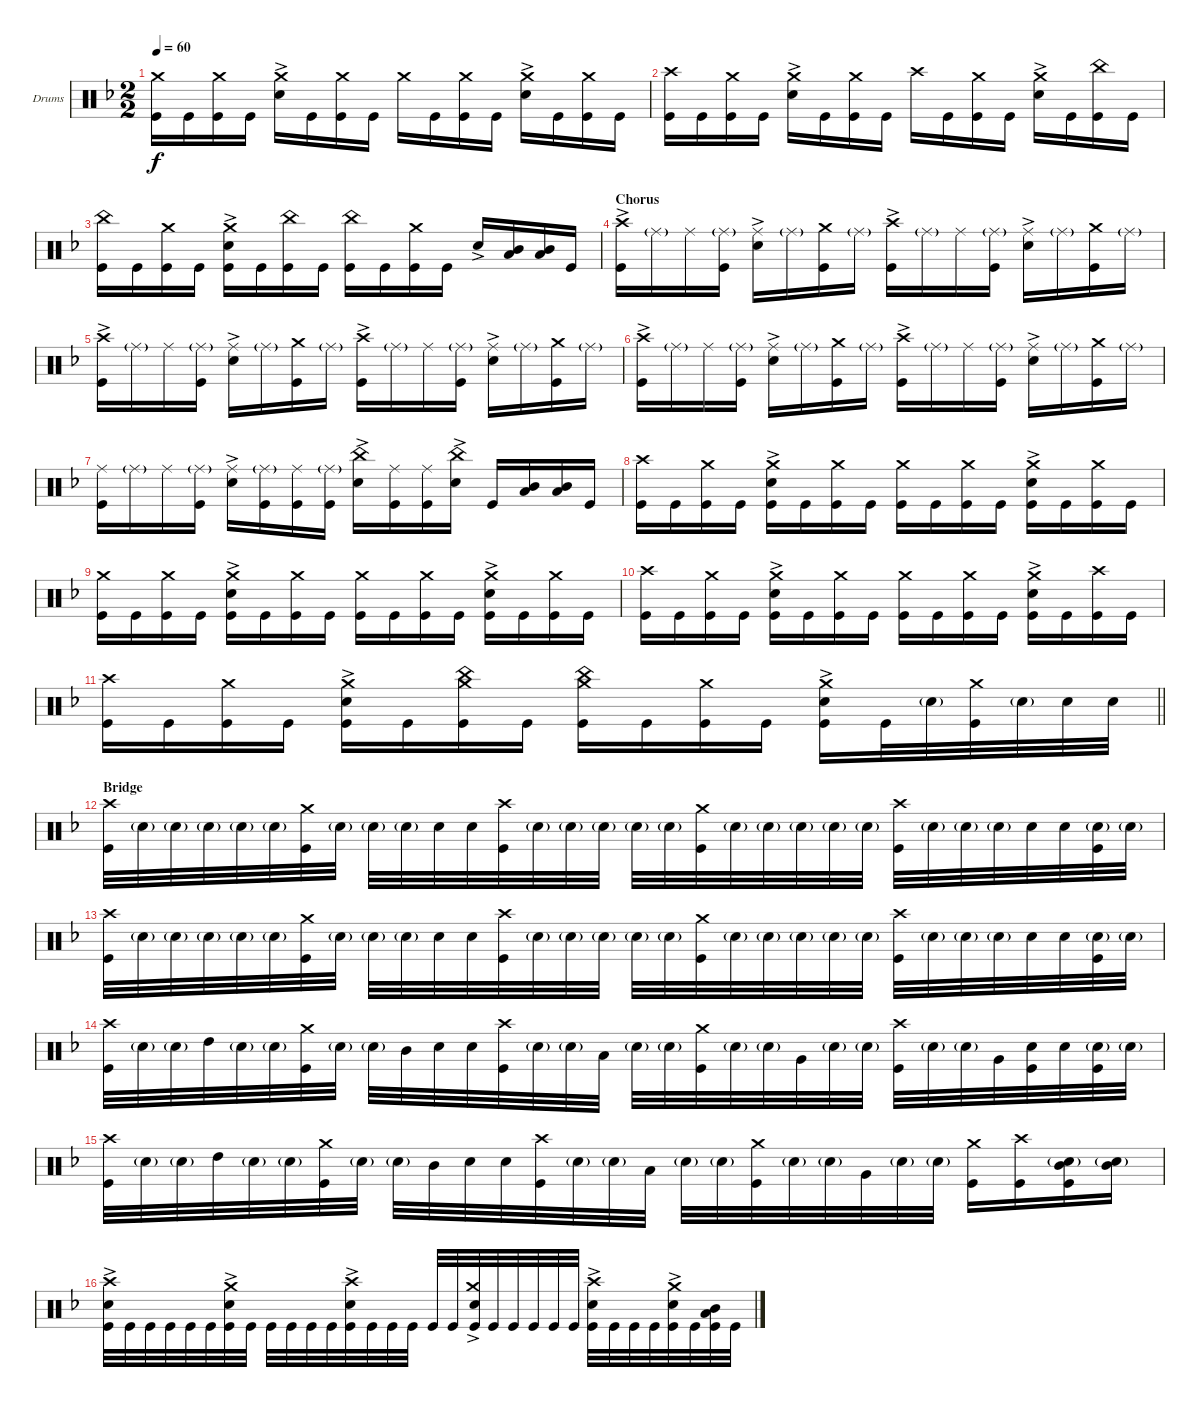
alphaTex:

\bracketExtendMode groupsimilarinstruments
\firstSystemTrackNameOrientation horizontal
\otherSystemsTrackNameOrientation horizontal
\track ("Drumkit" "Drums") {instrument percussion}
\staff {score}
\articulation defaults
\ts (2 2)
\tempo 60
\clef neutral
\ks dminor
("Kick (hit)" "Crash medium (hit)").16{dy f} "Kick (hit)".16 ("Kick (hit)" "Crash medium (hit)").16 "Kick (hit)".16 ("Snare (hit) 2"{ac} "Crash medium (hit)").16 "Kick (hit)".16 ("Kick (hit)" "Crash medium (hit)").16 "Kick (hit)".16 "Crash medium (hit)".16 "Kick (hit)".16 ("Kick (hit)" "Crash medium (hit)").16 "Kick (hit)".16 ("Snare (hit) 2"{ac} "Crash medium (hit)").16 "Kick (hit)".16 ("Kick (hit)" "Crash medium (hit)").16 "Kick (hit)".16 |
("Kick (hit)" "Crash high (hit)").16 "Kick (hit)".16 ("Kick (hit)" "Crash medium (hit)").16 "Kick (hit)".16 ("Snare (hit) 2"{ac} "Crash medium (hit)").16 "Kick (hit)".16 ("Kick (hit)" "Crash medium (hit)").16 "Kick (hit)".16 "Crash high (hit)".16 "Kick (hit)".16 ("Kick (hit)" "Crash medium (hit)").16 "Kick (hit)".16 ("Snare (hit) 2"{ac} "Crash medium (hit)").16 "Kick (hit)".16 ("Kick (hit)" "China (hit)").16 "Kick (hit)".16 |
("China (hit)" "Kick (hit)").16 "Kick (hit)".16 ("Kick (hit)" "Crash medium (hit)").16 "Kick (hit)".16 ("Kick (hit)" "Crash medium (hit)" "Snare (hit) 2"{ac}).16 "Kick (hit)".16 ("Kick (hit)" "China (hit)").16 "Kick (hit)".16 ("Kick (hit)" "China (hit)").16 "Kick (hit)".16 ("Kick (hit)" "Crash medium (hit)").16 "Kick (hit)".16 "Snare (hit) 2"{ac}.16 ("Mid Tom (hit)" "Low Tom (hit)").16 ("Low Tom (hit)" "Mid Tom (hit)").16 "Kick (hit)".16 |
\section ("" "Chorus")
("Crash high (hit)"{ac} "Kick (hit)").16 "Ride (middle)"{g}.16 "Ride (middle)".16 ("Ride (middle)"{g} "Kick (hit)").16 ("Ride (middle)" "Snare (hit) 2"{ac}).16 "Ride (middle)"{g}.16 ("Crash medium (hit)" "Kick (hit)").16 "Ride (middle)"{g}.16 ("Crash high (hit)"{ac} "Kick (hit)").16 "Ride (middle)"{g}.16 "Ride (middle)".16 ("Ride (middle)"{g} "Kick (hit)").16 ("Ride (middle)" "Snare (hit) 2"{ac}).16 "Ride (middle)"{g}.16 ("Crash medium (hit)" "Kick (hit)").16 "Ride (middle)"{g}.16 |
("Crash high (hit)"{ac} "Kick (hit)").16 "Ride (middle)"{g}.16 "Ride (middle)".16 ("Ride (middle)"{g} "Kick (hit)").16 ("Ride (middle)" "Snare (hit) 2"{ac}).16 "Ride (middle)"{g}.16 ("Crash medium (hit)" "Kick (hit)").16 "Ride (middle)"{g}.16 ("Crash high (hit)"{ac} "Kick (hit)").16 "Ride (middle)"{g}.16 "Ride (middle)".16 ("Ride (middle)"{g} "Kick (hit)").16 ("Ride (middle)" "Snare (hit) 2"{ac}).16 "Ride (middle)"{g}.16 ("Crash medium (hit)" "Kick (hit)").16 "Ride (middle)"{g}.16 |
("Crash high (hit)"{ac} "Kick (hit)").16 "Ride (middle)"{g}.16 "Ride (middle)".16 ("Ride (middle)"{g} "Kick (hit)").16 ("Ride (middle)" "Snare (hit) 2"{ac}).16 "Ride (middle)"{g}.16 ("Crash medium (hit)" "Kick (hit)").16 "Ride (middle)"{g}.16 ("Crash high (hit)"{ac} "Kick (hit)").16 "Ride (middle)"{g}.16 "Ride (middle)".16 ("Ride (middle)"{g} "Kick (hit)").16 ("Ride (middle)" "Snare (hit) 2"{ac}).16 "Ride (middle)"{g}.16 ("Crash medium (hit)" "Kick (hit)").16 "Ride (middle)"{g}.16 |
("Kick (hit)" "Ride (middle)").16 "Ride (middle)"{g}.16 "Ride (middle)".16 ("Kick (hit)" "Ride (middle)"{g}).16 ("Snare (hit) 2"{ac} "Ride (middle)").16 ("Kick (hit)" "Ride (middle)"{g}).16 ("Kick (hit)" "Ride (middle)").16 ("Kick (hit)" "Ride (middle)"{g}).16 ("Snare (hit) 2"{ac} "China (hit)").16 ("Kick (hit)" "Ride (middle)").16 ("Kick (hit)" "Ride (middle)").16 ("Snare (hit) 2"{ac} "China (hit)").16 "Kick (hit)".16 ("Low Tom (hit)" "Mid Tom (hit)").16 ("Mid Tom (hit)" "Low Tom (hit)").16 "Kick (hit)".16 |
("Kick (hit)" "Crash high (hit)").16 "Kick (hit)".16 ("Kick (hit)" "Crash medium (hit)").16 "Kick (hit)".16 ("Kick (hit)" "Snare (hit) 2"{ac} "Crash medium (hit)").16 "Kick (hit)".16 ("Kick (hit)" "Crash medium (hit)").16 "Kick (hit)".16 ("Kick (hit)" "Crash medium (hit)").16 "Kick (hit)".16 ("Kick (hit)" "Crash medium (hit)").16 "Kick (hit)".16 ("Kick (hit)" "Snare (hit) 2"{ac} "Crash medium (hit)").16 "Kick (hit)".16 ("Kick (hit)" "Crash medium (hit)").16 "Kick (hit)".16 |
("Kick (hit)" "Crash medium (hit)").16 "Kick (hit)".16 ("Kick (hit)" "Crash medium (hit)").16 "Kick (hit)".16 ("Kick (hit)" "Snare (hit) 2"{ac} "Crash medium (hit)").16 "Kick (hit)".16 ("Kick (hit)" "Crash medium (hit)").16 "Kick (hit)".16 ("Kick (hit)" "Crash medium (hit)").16 "Kick (hit)".16 ("Kick (hit)" "Crash medium (hit)").16 "Kick (hit)".16 ("Kick (hit)" "Snare (hit) 2"{ac} "Crash medium (hit)").16 "Kick (hit)".16 ("Kick (hit)" "Crash medium (hit)").16 "Kick (hit)".16 |
("Kick (hit)" "Crash high (hit)").16 "Kick (hit)".16 ("Kick (hit)" "Crash medium (hit)").16 "Kick (hit)".16 ("Kick (hit)" "Snare (hit) 2"{ac} "Crash medium (hit)").16 "Kick (hit)".16 ("Kick (hit)" "Crash medium (hit)").16 "Kick (hit)".16 ("Kick (hit)" "Crash medium (hit)").16 "Kick (hit)".16 ("Kick (hit)" "Crash medium (hit)").16 "Kick (hit)".16 ("Kick (hit)" "Snare (hit) 2"{ac} "Crash medium (hit)").16 "Kick (hit)".16 ("Kick (hit)" "Crash high (hit)").16 "Kick (hit)".16 |
\barLineRight lightlight
("Kick (hit)" "Crash high (hit)").16 "Kick (hit)".16 ("Kick (hit)" "Crash medium (hit)").16 "Kick (hit)".16 ("Kick (hit)" "Snare (hit) 2"{ac} "Crash medium (hit)").16 "Kick (hit)".16 ("Kick (hit)" "China (hit)" "Crash medium (hit)").16 "Kick (hit)".16 ("Kick (hit)" "Crash medium (hit)" "China (hit)").16 "Kick (hit)".16 ("Kick (hit)" "Crash medium (hit)").16 "Kick (hit)".16 ("Kick (hit)" "Snare (hit) 2"{ac} "Crash medium (hit)").16 "Kick (hit)".32 "Snare (hit) 2"{g}.32 ("Kick (hit)" "Crash medium (hit)").32 "Snare (hit) 2"{g}.32 "Snare (hit) 2".32 "Snare (hit) 2".32 |
\section ("" "Bridge")
("Kick (hit)" "Crash high (hit)").32 "Snare (hit) 2"{g}.32 "Snare (hit) 2"{g}.32 "Snare (hit) 2"{g}.32 "Snare (hit) 2"{g}.32 "Snare (hit) 2"{g}.32 ("Kick (hit)" "Crash medium (hit)").32 "Snare (hit) 2"{g}.32 "Snare (hit) 2"{g}.32 "Snare (hit) 2"{g}.32 "Snare (hit) 2".32 "Snare (hit) 2".32 ("Kick (hit)" "Crash high (hit)").32 "Snare (hit) 2"{g}.32 "Snare (hit) 2"{g}.32 "Snare (hit) 2"{g}.32 "Snare (hit) 2"{g}.32 "Snare (hit) 2"{g}.32 ("Kick (hit)" "Crash medium (hit)").32 "Snare (hit) 2"{g}.32 "Snare (hit) 2"{g}.32 "Snare (hit) 2"{g}.32 "Snare (hit) 2"{g}.32 "Snare (hit) 2"{g}.32 ("Kick (hit)" "Crash high (hit)").32 "Snare (hit) 2"{g}.32 "Snare (hit) 2"{g}.32 "Snare (hit) 2"{g}.32 "Snare (hit) 2".32 "Snare (hit) 2".32 ("Kick (hit)" "Snare (hit) 2"{g}).32 "Snare (hit) 2"{g}.32 |
("Kick (hit)" "Crash high (hit)").32 "Snare (hit) 2"{g}.32 "Snare (hit) 2"{g}.32 "Snare (hit) 2"{g}.32 "Snare (hit) 2"{g}.32 "Snare (hit) 2"{g}.32 ("Kick (hit)" "Crash medium (hit)").32 "Snare (hit) 2"{g}.32 "Snare (hit) 2"{g}.32 "Snare (hit) 2"{g}.32 "Snare (hit) 2".32 "Snare (hit) 2".32 ("Kick (hit)" "Crash high (hit)").32 "Snare (hit) 2"{g}.32 "Snare (hit) 2"{g}.32 "Snare (hit) 2"{g}.32 "Snare (hit) 2"{g}.32 "Snare (hit) 2"{g}.32 ("Kick (hit)" "Crash medium (hit)").32 "Snare (hit) 2"{g}.32 "Snare (hit) 2"{g}.32 "Snare (hit) 2"{g}.32 "Snare (hit) 2"{g}.32 "Snare (hit) 2"{g}.32 ("Kick (hit)" "Crash high (hit)").32 "Snare (hit) 2"{g}.32 "Snare (hit) 2"{g}.32 "Snare (hit) 2"{g}.32 "Snare (hit) 2".32 "Snare (hit) 2".32 ("Kick (hit)" "Snare (hit) 2"{g}).32 "Snare (hit) 2"{g}.32 |
("Kick (hit)" "Crash high (hit)").32 "Snare (hit) 2"{g}.32 "Snare (hit) 2"{g}.32 "High Tom (hit)".32 "Snare (hit) 2"{g}.32 "Snare (hit) 2"{g}.32 ("Kick (hit)" "Crash medium (hit)").32 "Snare (hit) 2"{g}.32 "Snare (hit) 2"{g}.32 "Mid Tom (hit)".32 "Snare (hit) 2".32 "Snare (hit) 2".32 ("Kick (hit)" "Crash high (hit)").32 "Snare (hit) 2"{g}.32 "Snare (hit) 2"{g}.32 "Low Tom (hit)".32 "Snare (hit) 2"{g}.32 "Snare (hit) 2"{g}.32 ("Kick (hit)" "Crash medium (hit)").32 "Snare (hit) 2"{g}.32 "Snare (hit) 2"{g}.32 "Very Low Tom (hit)".32 "Snare (hit) 2"{g}.32 "Snare (hit) 2"{g}.32 ("Kick (hit)" "Crash high (hit)").32 "Snare (hit) 2"{g}.32 "Snare (hit) 2"{g}.32 "Very Low Tom (hit)".32 ("Snare (hit) 2" "Kick (hit)").32 "Snare (hit) 2".32 ("Kick (hit)" "Snare (hit) 2"{g}).32 "Snare (hit) 2"{g}.32 |
("Kick (hit)" "Crash high (hit)").32 "Snare (hit) 2"{g}.32 "Snare (hit) 2"{g}.32 "High Tom (hit)".32 "Snare (hit) 2"{g}.32 "Snare (hit) 2"{g}.32 ("Kick (hit)" "Crash medium (hit)").32 "Snare (hit) 2"{g}.32 "Snare (hit) 2"{g}.32 "Mid Tom (hit)".32 "Snare (hit) 2".32 "Snare (hit) 2".32 ("Kick (hit)" "Crash high (hit)").32 "Snare (hit) 2"{g}.32 "Snare (hit) 2"{g}.32 "Low Tom (hit)".32 "Snare (hit) 2"{g}.32 "Snare (hit) 2"{g}.32 ("Kick (hit)" "Crash medium (hit)").32 "Snare (hit) 2"{g}.32 "Snare (hit) 2"{g}.32 "Very Low Tom (hit)".32 "Snare (hit) 2"{g}.32 "Snare (hit) 2"{g}.32 ("Kick (hit)" "Crash medium (hit)").16 ("Kick (hit)" "Crash high (hit)").16 ("Mid Tom (hit)" "Kick (hit)" "Snare (hit) 2"{g}).16 ("Mid Tom (hit)" "Snare (hit) 2"{g}).16 |
("Kick (hit)" "Snare (hit) 2"{ac} "Crash high (hit)").32 "Kick (hit)".32 "Kick (hit)".32 "Kick (hit)".32 "Kick (hit)".32 "Kick (hit)".32 ("Kick (hit)" "Snare (hit) 2"{ac} "Crash medium (hit)").32 "Kick (hit)".32 "Kick (hit)".32 "Kick (hit)".32 "Kick (hit)".32 "Kick (hit)".32 ("Kick (hit)" "Snare (hit) 2"{ac} "Crash high (hit)").32 "Kick (hit)".32 "Kick (hit)".32 "Kick (hit)".32 "Kick (hit)".32 "Kick (hit)".32 ("Kick (hit)" "Snare (hit) 2"{ac} "Crash medium (hit)").32 "Kick (hit)".32 "Kick (hit)".32 "Kick (hit)".32 "Kick (hit)".32 "Kick (hit)".32 ("Kick (hit)" "Snare (hit) 2"{ac} "Crash high (hit)").32 "Kick (hit)".32 "Kick (hit)".32 "Kick (hit)".32 ("Kick (hit)" "Snare (hit) 2"{ac} "Crash medium (hit)").32 "Kick (hit)".32 ("Kick (hit)" "Mid Tom (hit)" "Low Tom (hit)").32 "Kick (hit)".32
